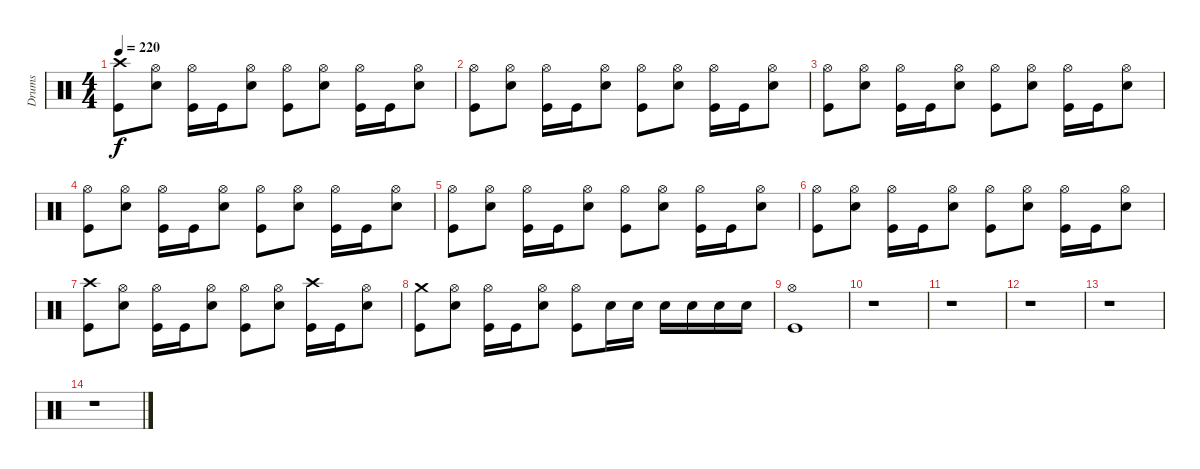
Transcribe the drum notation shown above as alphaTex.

\track ("Drums" "Drums") {instrument percussion}
\staff {score}
\articulation defaults
\ts (4 4)
\tempo 220
\clef neutral
\ks c
("Crash high (hit)" "Kick (hit)").8{dy f} ("Hi-Hat (open)" "Electric Snare (hit)").8 ("Hi-Hat (open)" "Kick (hit)").16 "Kick (hit)".16 ("Hi-Hat (open)" "Electric Snare (hit)").8 ("Hi-Hat (open)" "Kick (hit)").8 ("Hi-Hat (open)" "Electric Snare (hit)").8 ("Hi-Hat (open)" "Kick (hit)").16 "Kick (hit)".16 ("Hi-Hat (open)" "Electric Snare (hit)").8 |
("Hi-Hat (open)" "Kick (hit)").8 ("Hi-Hat (open)" "Electric Snare (hit)").8 ("Hi-Hat (open)" "Kick (hit)").16 "Kick (hit)".16 ("Hi-Hat (open)" "Electric Snare (hit)").8 ("Hi-Hat (open)" "Kick (hit)").8 ("Hi-Hat (open)" "Electric Snare (hit)").8 ("Hi-Hat (open)" "Kick (hit)").16 "Kick (hit)".16 ("Hi-Hat (open)" "Electric Snare (hit)").8 |
("Hi-Hat (open)" "Kick (hit)").8 ("Hi-Hat (open)" "Electric Snare (hit)").8 ("Hi-Hat (open)" "Kick (hit)").16 "Kick (hit)".16 ("Hi-Hat (open)" "Electric Snare (hit)").8 ("Hi-Hat (open)" "Kick (hit)").8 ("Hi-Hat (open)" "Electric Snare (hit)").8 ("Hi-Hat (open)" "Kick (hit)").16 "Kick (hit)".16 ("Hi-Hat (open)" "Electric Snare (hit)").8 |
("Hi-Hat (open)" "Kick (hit)").8 ("Hi-Hat (open)" "Electric Snare (hit)").8 ("Hi-Hat (open)" "Kick (hit)").16 "Kick (hit)".16 ("Hi-Hat (open)" "Electric Snare (hit)").8 ("Hi-Hat (open)" "Kick (hit)").8 ("Hi-Hat (open)" "Electric Snare (hit)").8 ("Hi-Hat (open)" "Kick (hit)").16 "Kick (hit)".16 ("Hi-Hat (open)" "Electric Snare (hit)").8 |
("Hi-Hat (open)" "Kick (hit)").8 ("Hi-Hat (open)" "Electric Snare (hit)").8 ("Hi-Hat (open)" "Kick (hit)").16 "Kick (hit)".16 ("Hi-Hat (open)" "Electric Snare (hit)").8 ("Hi-Hat (open)" "Kick (hit)").8 ("Hi-Hat (open)" "Electric Snare (hit)").8 ("Hi-Hat (open)" "Kick (hit)").16 "Kick (hit)".16 ("Hi-Hat (open)" "Electric Snare (hit)").8 |
("Hi-Hat (open)" "Kick (hit)").8 ("Hi-Hat (open)" "Electric Snare (hit)").8 ("Hi-Hat (open)" "Kick (hit)").16 "Kick (hit)".16 ("Hi-Hat (open)" "Electric Snare (hit)").8 ("Hi-Hat (open)" "Kick (hit)").8 ("Hi-Hat (open)" "Electric Snare (hit)").8 ("Hi-Hat (open)" "Kick (hit)").16 "Kick (hit)".16 ("Hi-Hat (open)" "Electric Snare (hit)").8 |
("Crash high (hit)" "Kick (hit)").8 ("Hi-Hat (open)" "Electric Snare (hit)").8 ("Hi-Hat (open)" "Kick (hit)").16 "Kick (hit)".16 ("Hi-Hat (open)" "Electric Snare (hit)").8 ("Hi-Hat (open)" "Kick (hit)").8 ("Hi-Hat (open)" "Electric Snare (hit)").8 ("Crash high (hit)" "Kick (hit)").16 "Kick (hit)".16 ("Hi-Hat (open)" "Electric Snare (hit)").8 |
("Crash medium (hit)" "Kick (hit)").8 ("Hi-Hat (open)" "Electric Snare (hit)").8 ("Hi-Hat (open)" "Kick (hit)").16 "Kick (hit)".16 ("Hi-Hat (open)" "Electric Snare (hit)").8 ("Hi-Hat (open)" "Kick (hit)").8 "Electric Snare (hit)".16 "Electric Snare (hit)".16 "Electric Snare (hit)".16 "Electric Snare (hit)".16 "Electric Snare (hit)".16 "Electric Snare (hit)".16 |
("Hi-Hat (open)" "Kick (hit)").1 |
r.1 |
r.1 |
r.1 |
r.1 |
r.1
